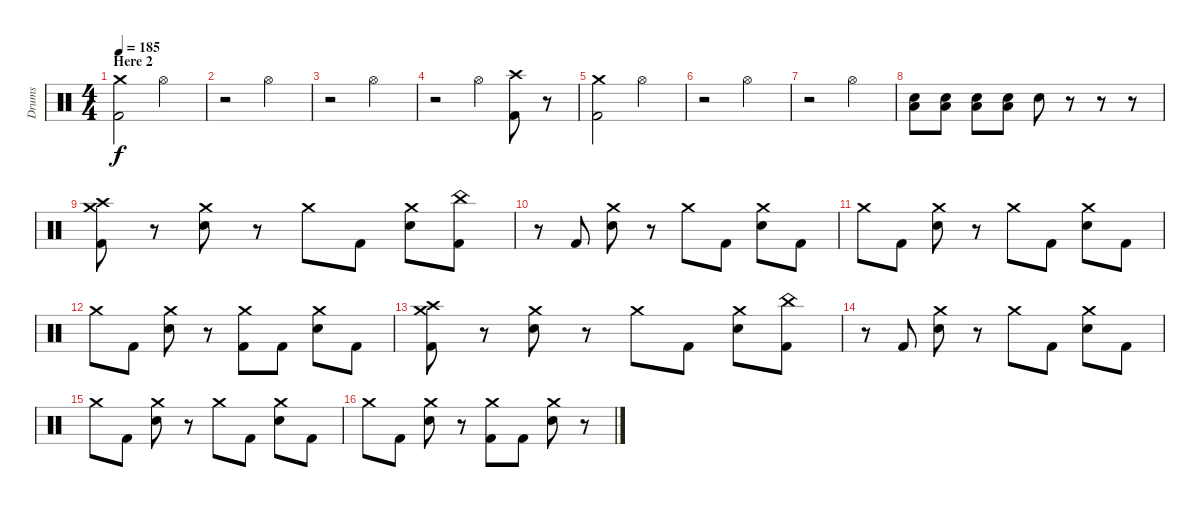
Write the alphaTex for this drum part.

\track ("Drums" "Drums") {solo instrument percussion}
\staff {score}
\articulation defaults
\ts (4 4)
\section ("" "Here 2")
\tempo 185
\clef neutral
\ks c
("Crash medium (hit)" "Kick (hit) 2").2{dy f} "Hi-Hat (open)".2 |
r.2 "Hi-Hat (open)".2 |
r.2 "Hi-Hat (open)".2 |
r.2 "Hi-Hat (open)".4 ("Crash high (hit)" "Kick (hit) 2").8 r.8 |
("Crash medium (hit)" "Kick (hit) 2").2 "Hi-Hat (open)".2 |
r.2 "Hi-Hat (open)".2 |
r.2 "Hi-Hat (open)".2 |
("Snare (hit) 2" "Low Tom (hit)").8 ("Snare (hit) 2" "Low Tom (hit)").8 ("Snare (hit) 2" "Low Tom (hit)").8 ("Snare (hit) 2" "Low Tom (hit)").8 "Snare (hit) 2".8 r.8 r.8 r.8 |
("Crash medium (hit)" "Crash high (hit)" "Kick (hit) 2").8 r.8 ("Crash medium (hit)" "Snare (hit) 2").8 r.8 "Crash medium (hit)".8 "Kick (hit) 2".8 ("Crash medium (hit)" "Snare (hit) 2").8 ("China (hit)" "Kick (hit) 2").8 |
r.8 "Kick (hit) 2".8 ("Crash medium (hit)" "Snare (hit) 2").8 r.8 "Crash medium (hit)".8 "Kick (hit) 2".8 ("Crash medium (hit)" "Snare (hit) 2").8 "Kick (hit) 2".8 |
"Crash medium (hit)".8 "Kick (hit) 2".8 ("Crash medium (hit)" "Snare (hit) 2").8 r.8 "Crash medium (hit)".8 "Kick (hit) 2".8 ("Crash medium (hit)" "Snare (hit) 2").8 "Kick (hit) 2".8 |
"Crash medium (hit)".8 "Kick (hit) 2".8 ("Crash medium (hit)" "Snare (hit) 2").8 r.8 ("Crash medium (hit)" "Kick (hit) 2").8 "Kick (hit) 2".8 ("Crash medium (hit)" "Snare (hit) 2").8 "Kick (hit) 2".8 |
("Crash medium (hit)" "Crash high (hit)" "Kick (hit) 2").8 r.8 ("Crash medium (hit)" "Snare (hit) 2").8 r.8 "Crash medium (hit)".8 "Kick (hit) 2".8 ("Crash medium (hit)" "Snare (hit) 2").8 ("China (hit)" "Kick (hit) 2").8 |
r.8 "Kick (hit) 2".8 ("Crash medium (hit)" "Snare (hit) 2").8 r.8 "Crash medium (hit)".8 "Kick (hit) 2".8 ("Crash medium (hit)" "Snare (hit) 2").8 "Kick (hit) 2".8 |
"Crash medium (hit)".8 "Kick (hit) 2".8 ("Crash medium (hit)" "Snare (hit) 2").8 r.8 "Crash medium (hit)".8 "Kick (hit) 2".8 ("Crash medium (hit)" "Snare (hit) 2").8 "Kick (hit) 2".8 |
"Crash medium (hit)".8 "Kick (hit) 2".8 ("Crash medium (hit)" "Snare (hit) 2").8 r.8 ("Crash medium (hit)" "Kick (hit) 2").8 "Kick (hit) 2".8 ("Crash medium (hit)" "Snare (hit) 2").8 r.8
